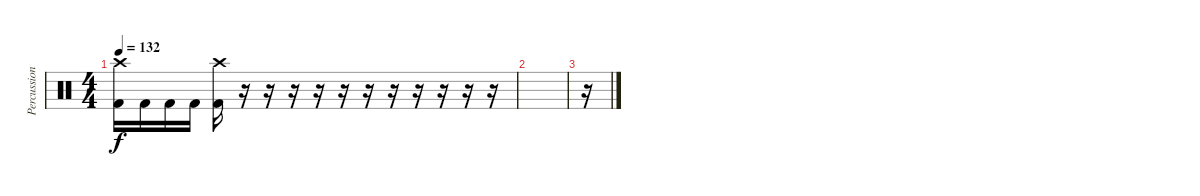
\track ("Percussion" "Percussion") {instrument percussion}
\staff {score}
\articulation defaults
\ts (4 4)
\tempo 132
\clef neutral
\ks c
("Crash high (hit)" "Kick (hit) 2").16{dy f} "Kick (hit) 2".16 "Kick (hit) 2".16 "Kick (hit) 2".16 ("Crash high (hit)" "Kick (hit) 2").16 r.16 r.16 r.16 r.16 r.16 r.16 r.16 r.16 r.16 r.16 r.16 |
|
r.16
